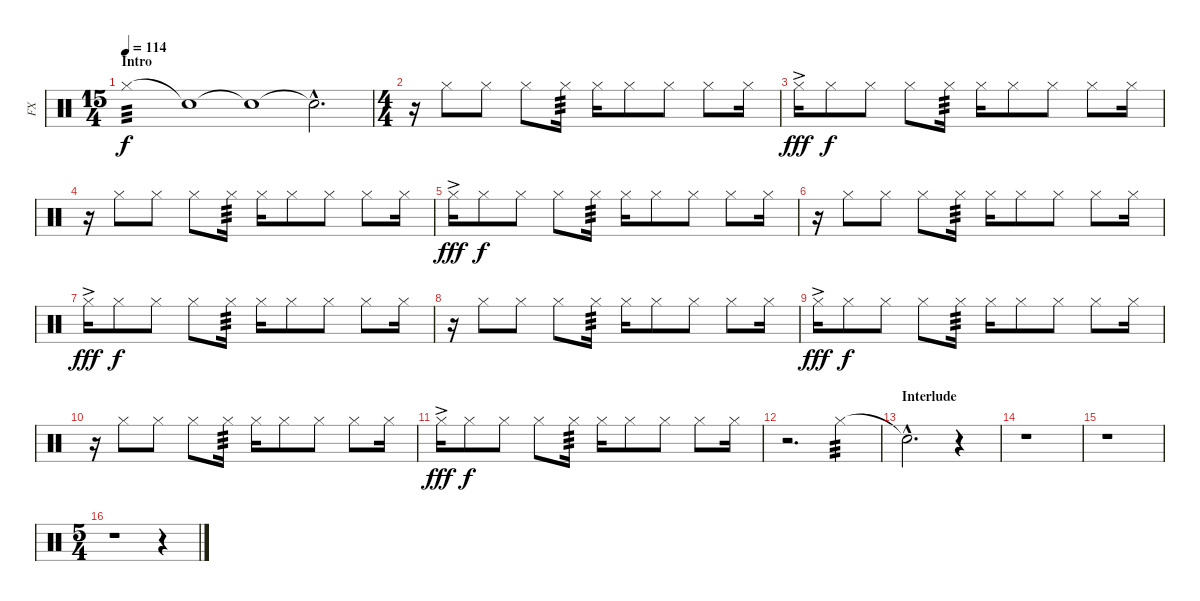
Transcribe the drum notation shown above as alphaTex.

\track ("FX" "FX") {instrument percussion}
\staff {score}
\articulation defaults
\ts (15 4)
\section ("" "Intro")
\tempo 114
\clef neutral
\ks c "Hi-Hat (closed)".1{tp 3 dy f volume 0 balance 16} "Snare (hit)"{t}.1 "Snare (hit)"{t}.1 "Snare (hit)"{hac t}.2{d}
|
\ts (4 4)
r.16 "Hi-Hat (closed)".8 "Hi-Hat (closed)".8 "Hi-Hat (closed)".8 "Hi-Hat (closed)".16{tp 3} "Hi-Hat (closed)".16 "Hi-Hat (closed)".8 "Hi-Hat (closed)".8 "Hi-Hat (closed)".8 "Hi-Hat (closed)".16 |
"Hi-Hat (closed)"{ac}.16{dy fff} "Hi-Hat (closed)".8{dy f} "Hi-Hat (closed)".8 "Hi-Hat (closed)".8 "Hi-Hat (closed)".16{tp 3} "Hi-Hat (closed)".16 "Hi-Hat (closed)".8 "Hi-Hat (closed)".8 "Hi-Hat (closed)".8 "Hi-Hat (closed)".16 |
r.16 "Hi-Hat (closed)".8 "Hi-Hat (closed)".8 "Hi-Hat (closed)".8 "Hi-Hat (closed)".16{tp 3} "Hi-Hat (closed)".16 "Hi-Hat (closed)".8 "Hi-Hat (closed)".8 "Hi-Hat (closed)".8 "Hi-Hat (closed)".16 |
"Hi-Hat (closed)"{ac}.16{dy fff} "Hi-Hat (closed)".8{dy f} "Hi-Hat (closed)".8 "Hi-Hat (closed)".8 "Hi-Hat (closed)".16{tp 3} "Hi-Hat (closed)".16 "Hi-Hat (closed)".8 "Hi-Hat (closed)".8 "Hi-Hat (closed)".8 "Hi-Hat (closed)".16 |
r.16 "Hi-Hat (closed)".8 "Hi-Hat (closed)".8 "Hi-Hat (closed)".8 "Hi-Hat (closed)".16{tp 3} "Hi-Hat (closed)".16 "Hi-Hat (closed)".8 "Hi-Hat (closed)".8 "Hi-Hat (closed)".8 "Hi-Hat (closed)".16 |
"Hi-Hat (closed)"{ac}.16{dy fff} "Hi-Hat (closed)".8{dy f} "Hi-Hat (closed)".8 "Hi-Hat (closed)".8 "Hi-Hat (closed)".16{tp 3} "Hi-Hat (closed)".16 "Hi-Hat (closed)".8 "Hi-Hat (closed)".8 "Hi-Hat (closed)".8 "Hi-Hat (closed)".16 |
r.16 "Hi-Hat (closed)".8 "Hi-Hat (closed)".8 "Hi-Hat (closed)".8 "Hi-Hat (closed)".16{tp 3} "Hi-Hat (closed)".16 "Hi-Hat (closed)".8 "Hi-Hat (closed)".8 "Hi-Hat (closed)".8 "Hi-Hat (closed)".16 |
"Hi-Hat (closed)"{ac}.16{dy fff} "Hi-Hat (closed)".8{dy f} "Hi-Hat (closed)".8 "Hi-Hat (closed)".8 "Hi-Hat (closed)".16{tp 3} "Hi-Hat (closed)".16 "Hi-Hat (closed)".8 "Hi-Hat (closed)".8 "Hi-Hat (closed)".8 "Hi-Hat (closed)".16 |
r.16 "Hi-Hat (closed)".8 "Hi-Hat (closed)".8 "Hi-Hat (closed)".8 "Hi-Hat (closed)".16{tp 3} "Hi-Hat (closed)".16 "Hi-Hat (closed)".8 "Hi-Hat (closed)".8 "Hi-Hat (closed)".8 "Hi-Hat (closed)".16 |
"Hi-Hat (closed)"{ac}.16{dy fff} "Hi-Hat (closed)".8{dy f} "Hi-Hat (closed)".8 "Hi-Hat (closed)".8 "Hi-Hat (closed)".16{tp 3} "Hi-Hat (closed)".16 "Hi-Hat (closed)".8 "Hi-Hat (closed)".8 "Hi-Hat (closed)".8 "Hi-Hat (closed)".16 |
r.2{d} "Hi-Hat (closed)".4{tp 3} |
\section ("" "Interlude")
"Snare (hit)"{hac t}.2{d} r.4 |
r.1 |
r.1 |
\ts (5 4)
r.1 r.4
